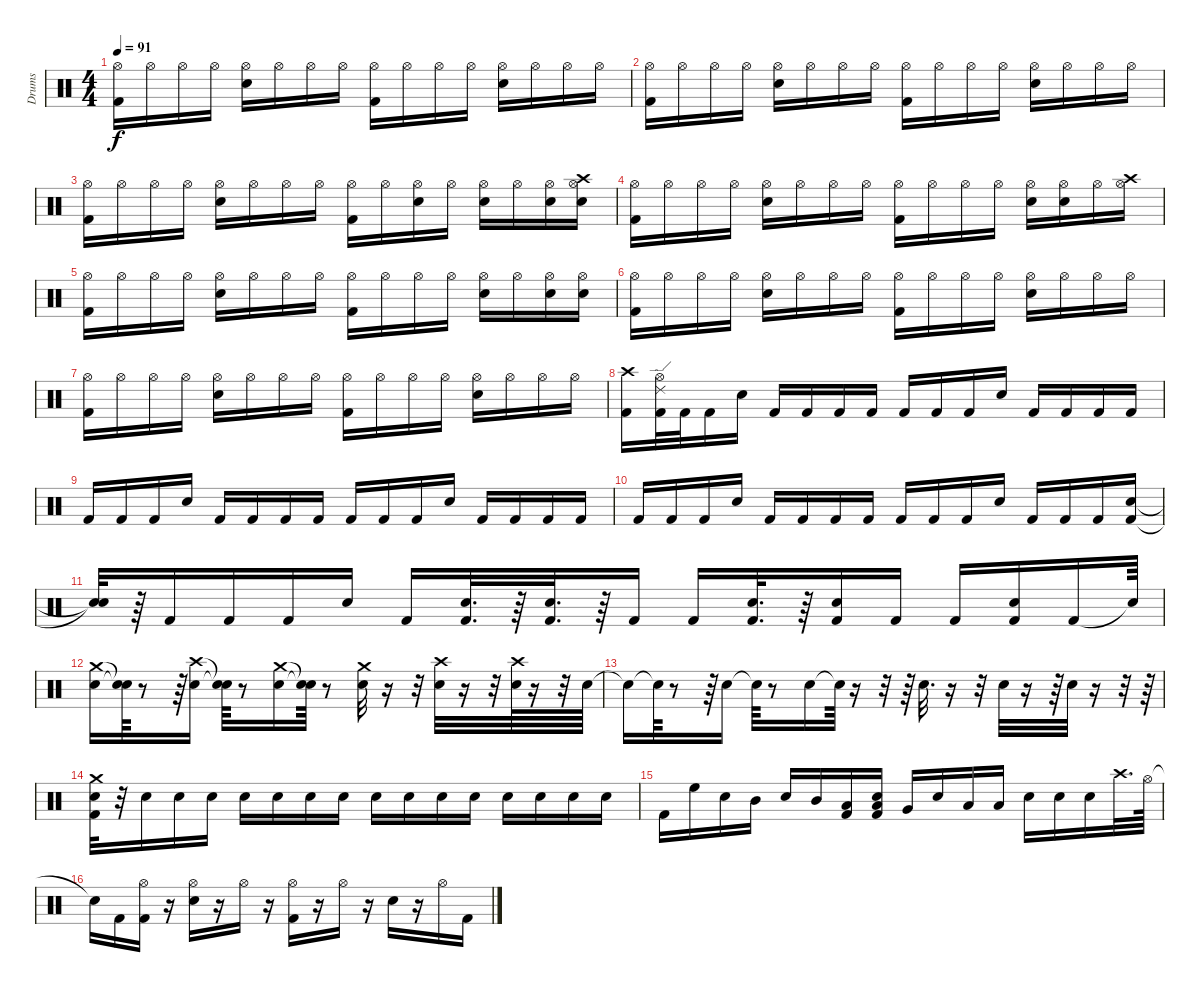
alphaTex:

\track ("Drums" "Drums") {instrument percussion}
\staff {score}
\articulation defaults
\ts (4 4)
\tempo 91
\clef neutral
\ks c
("Kick (hit) 2" "Hi-Hat (open)").16{dy f} "Hi-Hat (open)".16 "Hi-Hat (open)".16 "Hi-Hat (open)".16 ("Snare (hit) 2" "Hi-Hat (open)").16 "Hi-Hat (open)".16 "Hi-Hat (open)".16 "Hi-Hat (open)".16 ("Kick (hit) 2" "Hi-Hat (open)").16 "Hi-Hat (open)".16 "Hi-Hat (open)".16 "Hi-Hat (open)".16 ("Snare (hit) 2" "Hi-Hat (open)").16 "Hi-Hat (open)".16 "Hi-Hat (open)".16 "Hi-Hat (open)".16 |
("Kick (hit) 2" "Hi-Hat (open)").16 "Hi-Hat (open)".16 "Hi-Hat (open)".16 "Hi-Hat (open)".16 ("Snare (hit) 2" "Hi-Hat (open)").16 "Hi-Hat (open)".16 "Hi-Hat (open)".16 "Hi-Hat (open)".16 ("Kick (hit) 2" "Hi-Hat (open)").16 "Hi-Hat (open)".16 "Hi-Hat (open)".16 "Hi-Hat (open)".16 ("Snare (hit) 2" "Hi-Hat (open)").16 "Hi-Hat (open)".16 "Hi-Hat (open)".16 "Hi-Hat (open)".16 |
("Kick (hit) 2" "Hi-Hat (open)").16 "Hi-Hat (open)".16 "Hi-Hat (open)".16 "Hi-Hat (open)".16 ("Snare (hit) 2" "Hi-Hat (open)").16 "Hi-Hat (open)".16 "Hi-Hat (open)".16 "Hi-Hat (open)".16 ("Kick (hit) 2" "Hi-Hat (open)").16 "Hi-Hat (open)".16 ("Snare (hit) 2" "Hi-Hat (open)").16 "Hi-Hat (open)".16 ("Snare (hit) 2" "Hi-Hat (open)").16 "Hi-Hat (open)".16 ("Snare (hit) 2" "Hi-Hat (open)").16 ("Snare (hit) 2" "Hi-Hat (open)" "Crash high (hit)").16 |
("Kick (hit) 2" "Hi-Hat (open)").16 "Hi-Hat (open)".16 "Hi-Hat (open)".16 "Hi-Hat (open)".16 ("Snare (hit) 2" "Hi-Hat (open)").16 "Hi-Hat (open)".16 "Hi-Hat (open)".16 "Hi-Hat (open)".16 ("Kick (hit) 2" "Hi-Hat (open)").16 "Hi-Hat (open)".16 "Hi-Hat (open)".16 "Hi-Hat (open)".16 ("Snare (hit) 2" "Hi-Hat (open)").16 ("Snare (hit) 2" "Hi-Hat (open)").16 "Hi-Hat (open)".16 ("Hi-Hat (open)" "Crash high (hit)").16 |
("Kick (hit) 2" "Hi-Hat (open)").16 "Hi-Hat (open)".16 "Hi-Hat (open)".16 "Hi-Hat (open)".16 ("Snare (hit) 2" "Hi-Hat (open)").16 "Hi-Hat (open)".16 "Hi-Hat (open)".16 "Hi-Hat (open)".16 ("Kick (hit) 2" "Hi-Hat (open)").16 "Hi-Hat (open)".16 "Hi-Hat (open)".16 "Hi-Hat (open)".16 ("Snare (hit) 2" "Hi-Hat (open)").16 "Hi-Hat (open)".16 ("Snare (hit) 2" "Hi-Hat (open)").16 ("Snare (hit) 2" "Hi-Hat (open)").16 |
("Kick (hit) 2" "Hi-Hat (open)").16 "Hi-Hat (open)".16 "Hi-Hat (open)".16 "Hi-Hat (open)".16 ("Snare (hit) 2" "Hi-Hat (open)").16 "Hi-Hat (open)".16 "Hi-Hat (open)".16 "Hi-Hat (open)".16 ("Kick (hit) 2" "Hi-Hat (open)").16 "Hi-Hat (open)".16 "Hi-Hat (open)".16 "Hi-Hat (open)".16 ("Snare (hit) 2" "Hi-Hat (open)").16 "Hi-Hat (open)".16 "Hi-Hat (open)".16 "Hi-Hat (open)".16 |
("Kick (hit) 2" "Hi-Hat (open)").16 "Hi-Hat (open)".16 "Hi-Hat (open)".16 "Hi-Hat (open)".16 ("Snare (hit) 2" "Hi-Hat (open)").16 "Hi-Hat (open)".16 "Hi-Hat (open)".16 "Hi-Hat (open)".16 ("Kick (hit) 2" "Hi-Hat (open)").16 "Hi-Hat (open)".16 "Hi-Hat (open)".16 "Hi-Hat (open)".16 ("Snare (hit) 2" "Hi-Hat (open)").16 "Hi-Hat (open)".16 "Hi-Hat (open)".16 "Hi-Hat (open)".16 |
("Kick (hit) 2" "Crash high (hit)").16 ("Kick (hit) 2" "Ride (edge) 2" "Hi-Hat (open)").32 "Kick (hit) 2".32 "Kick (hit) 2".16 "Snare (hit) 2".16 "Kick (hit) 2".16 "Kick (hit) 2".16 "Kick (hit) 2".16 "Kick (hit) 2".16 "Kick (hit) 2".16 "Kick (hit) 2".16 "Kick (hit) 2".16 "Snare (hit) 2".16 "Kick (hit) 2".16 "Kick (hit) 2".16 "Kick (hit) 2".16 "Kick (hit) 2".16 |
"Kick (hit) 2".16 "Kick (hit) 2".16 "Kick (hit) 2".16 "Snare (hit) 2".16 "Kick (hit) 2".16 "Kick (hit) 2".16 "Kick (hit) 2".16 "Kick (hit) 2".16 "Kick (hit) 2".16 "Kick (hit) 2".16 "Kick (hit) 2".16 "Snare (hit) 2".16 "Kick (hit) 2".16 "Kick (hit) 2".16 "Kick (hit) 2".16 "Kick (hit) 2".16 |
"Kick (hit) 2".16 "Kick (hit) 2".16 "Kick (hit) 2".16 "Snare (hit) 2".16 "Kick (hit) 2".16 "Kick (hit) 2".16 "Kick (hit) 2".16 "Kick (hit) 2".16 "Kick (hit) 2".16 "Kick (hit) 2".16 "Kick (hit) 2".16 "Snare (hit) 2".16 "Kick (hit) 2".16 "Kick (hit) 2".16 "Kick (hit) 2".16 ("Kick (hit) 2" "Snare (hit) 2").16 |
("Snare (hit)"{t} "Snare (hit)"{t}).32 r.64 "Kick (hit) 2".16 "Kick (hit) 2".16 "Kick (hit) 2".16 "Snare (hit) 2".16 "Kick (hit) 2".16 ("Kick (hit) 2" "Snare (hit) 2").32{d} r.64 ("Kick (hit) 2" "Snare (hit) 2").32{d} r.64 "Kick (hit) 2".16 "Kick (hit) 2".16 ("Kick (hit) 2" "Snare (hit) 2").32{d} r.64 ("Kick (hit) 2" "Snare (hit) 2").16 "Kick (hit) 2".16 "Kick (hit) 2".16 ("Kick (hit) 2" "Snare (hit) 2").16 "Kick (hit) 2".16 "Snare (hit)"{t}.64 |
("Snare (hit) 2" "Crash medium (hit)").16 ("Snare (hit)"{t} "Snare (hit)"{t}).64 r.8 r.64 ("Snare (hit) 2" "Crash high (hit)").16 ("Snare (hit)"{t} "Snare (hit)"{t}).64 r.8 ("Snare (hit) 2" "Crash medium (hit)").16 ("Snare (hit)"{t} "Snare (hit)"{t}).64 r.8 ("Snare (hit) 2" "Crash medium (hit)").32 r.16 r.32 ("Snare (hit) 2" "Crash high (hit)").32 r.16 r.32 ("Snare (hit) 2" "Crash high (hit)").64 r.16 r.32 "Snare (hit) 2".64 |
"Snare (hit)"{t}.16 "Snare (hit)"{t}.64 r.8 r.64 "Snare (hit) 2".16 "Snare (hit)"{t}.64 r.8 "Snare (hit) 2".16 "Snare (hit)"{t}.64 r.16 r.32 r.64 "Snare (hit) 2".32{d} r.16 r.32 "Snare (hit) 2".32 r.16 r.64 "Snare (hit) 2".32 r.16 r.32 r.64 |
("Crash medium (hit)" "Snare (hit) 2" "Kick (hit) 2").32 r.32 "Snare (hit) 2".16 "Snare (hit) 2".16 "Snare (hit) 2".16 "Snare (hit) 2".16 "Snare (hit) 2".16 "Snare (hit) 2".16 "Snare (hit) 2".16 "Snare (hit) 2".16 "Snare (hit) 2".16 "Snare (hit) 2".16 "Snare (hit) 2".16 "Snare (hit) 2".16 "Snare (hit) 2".16 "Snare (hit) 2".16 "Snare (hit) 2".16 |
"Kick (hit) 2".16 "High Floor Tom (hit)".16 "Snare (hit) 2".16 "Mid Tom (hit)".16 "Snare (hit) 2".16 "Mid Tom (hit)".16 ("Low Tom (hit)" "Kick (hit) 2").16 ("Snare (hit) 2" "Low Tom (hit)" "Kick (hit) 2").16 "Very Low Tom (hit)".16 "Snare (hit) 2".16 "Low Floor Tom (hit)".16 "Low Floor Tom (hit)".16 "Snare (hit) 2".16 "Snare (hit) 2".16 "Snare (hit) 2".16 "Crash high (hit)".32{d} "Hi-Hat (open)".64 |
"Snare (hit)"{t}.16 "Kick (hit) 2".16 ("Hi-Hat (open)" "Kick (hit) 2").16 r.16 ("Hi-Hat (open)" "Snare (hit) 2").16 r.16 "Hi-Hat (open)".16 r.16 ("Kick (hit) 2" "Hi-Hat (open)").16 r.16 "Hi-Hat (open)".16 r.16 "Snare (hit) 2".16 r.16 "Hi-Hat (open)".16 "Kick (hit) 2".16
